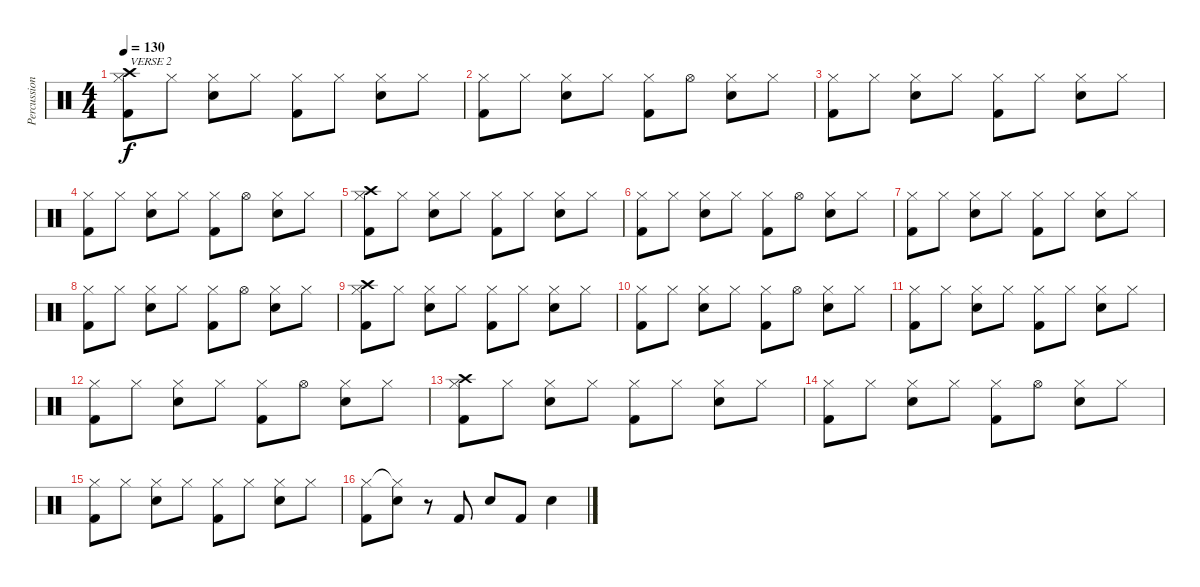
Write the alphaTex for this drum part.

\track ("Percussion" "Percussion") {instrument percussion}
\staff {score}
\articulation defaults
\ts (4 4)
\tempo 130
\clef neutral
\ks c
("Crash high (hit)" "Hi-Hat (closed)" "Kick (hit) 2").8{txt "VERSE 2" dy f} "Hi-Hat (closed)".8 ("Hi-Hat (closed)" "Electric Snare (hit)").8 "Hi-Hat (closed)".8 ("Hi-Hat (closed)" "Kick (hit) 2").8 "Hi-Hat (closed)".8 ("Hi-Hat (closed)" "Electric Snare (hit)").8 "Hi-Hat (closed)".8 |
("Hi-Hat (closed)" "Kick (hit) 2").8 "Hi-Hat (closed)".8 ("Hi-Hat (closed)" "Electric Snare (hit)").8 "Hi-Hat (closed)".8 ("Hi-Hat (closed)" "Kick (hit) 2").8 "Hi-Hat (open)".8 ("Hi-Hat (closed)" "Electric Snare (hit)").8 "Hi-Hat (closed)".8 |
("Hi-Hat (closed)" "Kick (hit) 2").8 "Hi-Hat (closed)".8 ("Hi-Hat (closed)" "Electric Snare (hit)").8 "Hi-Hat (closed)".8 ("Hi-Hat (closed)" "Kick (hit) 2").8 "Hi-Hat (closed)".8 ("Hi-Hat (closed)" "Electric Snare (hit)").8 "Hi-Hat (closed)".8 |
("Hi-Hat (closed)" "Kick (hit) 2").8 "Hi-Hat (closed)".8 ("Hi-Hat (closed)" "Electric Snare (hit)").8 "Hi-Hat (closed)".8 ("Hi-Hat (closed)" "Kick (hit) 2").8 "Hi-Hat (open)".8 ("Hi-Hat (closed)" "Electric Snare (hit)").8 "Hi-Hat (closed)".8 |
("Crash high (hit)" "Hi-Hat (closed)" "Kick (hit) 2").8 "Hi-Hat (closed)".8 ("Hi-Hat (closed)" "Electric Snare (hit)").8 "Hi-Hat (closed)".8 ("Hi-Hat (closed)" "Kick (hit) 2").8 "Hi-Hat (closed)".8 ("Hi-Hat (closed)" "Electric Snare (hit)").8 "Hi-Hat (closed)".8 |
("Hi-Hat (closed)" "Kick (hit) 2").8 "Hi-Hat (closed)".8 ("Hi-Hat (closed)" "Electric Snare (hit)").8 "Hi-Hat (closed)".8 ("Hi-Hat (closed)" "Kick (hit) 2").8 "Hi-Hat (open)".8 ("Hi-Hat (closed)" "Electric Snare (hit)").8 "Hi-Hat (closed)".8 |
("Hi-Hat (closed)" "Kick (hit) 2").8 "Hi-Hat (closed)".8 ("Hi-Hat (closed)" "Electric Snare (hit)").8 "Hi-Hat (closed)".8 ("Hi-Hat (closed)" "Kick (hit) 2").8 "Hi-Hat (closed)".8 ("Hi-Hat (closed)" "Electric Snare (hit)").8 "Hi-Hat (closed)".8 |
("Hi-Hat (closed)" "Kick (hit) 2").8 "Hi-Hat (closed)".8 ("Hi-Hat (closed)" "Electric Snare (hit)").8 "Hi-Hat (closed)".8 ("Hi-Hat (closed)" "Kick (hit) 2").8 "Hi-Hat (open)".8 ("Hi-Hat (closed)" "Electric Snare (hit)").8 "Hi-Hat (closed)".8 |
("Crash high (hit)" "Hi-Hat (closed)" "Kick (hit) 2").8 "Hi-Hat (closed)".8 ("Hi-Hat (closed)" "Electric Snare (hit)").8 "Hi-Hat (closed)".8 ("Hi-Hat (closed)" "Kick (hit) 2").8 "Hi-Hat (closed)".8 ("Hi-Hat (closed)" "Electric Snare (hit)").8 "Hi-Hat (closed)".8 |
("Hi-Hat (closed)" "Kick (hit) 2").8 "Hi-Hat (closed)".8 ("Hi-Hat (closed)" "Electric Snare (hit)").8 "Hi-Hat (closed)".8 ("Hi-Hat (closed)" "Kick (hit) 2").8 "Hi-Hat (open)".8 ("Hi-Hat (closed)" "Electric Snare (hit)").8 "Hi-Hat (closed)".8 |
("Hi-Hat (closed)" "Kick (hit) 2").8 "Hi-Hat (closed)".8 ("Hi-Hat (closed)" "Electric Snare (hit)").8 "Hi-Hat (closed)".8 ("Hi-Hat (closed)" "Kick (hit) 2").8 "Hi-Hat (closed)".8 ("Hi-Hat (closed)" "Electric Snare (hit)").8 "Hi-Hat (closed)".8 |
("Hi-Hat (closed)" "Kick (hit) 2").8 "Hi-Hat (closed)".8 ("Hi-Hat (closed)" "Electric Snare (hit)").8 "Hi-Hat (closed)".8 ("Hi-Hat (closed)" "Kick (hit) 2").8 "Hi-Hat (open)".8 ("Hi-Hat (closed)" "Electric Snare (hit)").8 "Hi-Hat (closed)".8 |
("Crash high (hit)" "Hi-Hat (closed)" "Kick (hit) 2").8 "Hi-Hat (closed)".8 ("Hi-Hat (closed)" "Electric Snare (hit)").8 "Hi-Hat (closed)".8 ("Hi-Hat (closed)" "Kick (hit) 2").8 "Hi-Hat (closed)".8 ("Hi-Hat (closed)" "Electric Snare (hit)").8 "Hi-Hat (closed)".8 |
("Hi-Hat (closed)" "Kick (hit) 2").8 "Hi-Hat (closed)".8 ("Hi-Hat (closed)" "Electric Snare (hit)").8 "Hi-Hat (closed)".8 ("Hi-Hat (closed)" "Kick (hit) 2").8 "Hi-Hat (open)".8 ("Hi-Hat (closed)" "Electric Snare (hit)").8 "Hi-Hat (closed)".8 |
("Hi-Hat (closed)" "Kick (hit) 2").8 "Hi-Hat (closed)".8 ("Hi-Hat (closed)" "Electric Snare (hit)").8 "Hi-Hat (closed)".8 ("Hi-Hat (closed)" "Kick (hit) 2").8 "Hi-Hat (closed)".8 ("Hi-Hat (closed)" "Electric Snare (hit)").8 "Hi-Hat (closed)".8 |
("Hi-Hat (closed)" "Kick (hit) 2").8 ("Hi-Hat (closed)"{t} "Electric Snare (hit)").8 r.8 "Kick (hit) 2".8 "Electric Snare (hit)".8 "Kick (hit) 2".8 "Electric Snare (hit)".4
